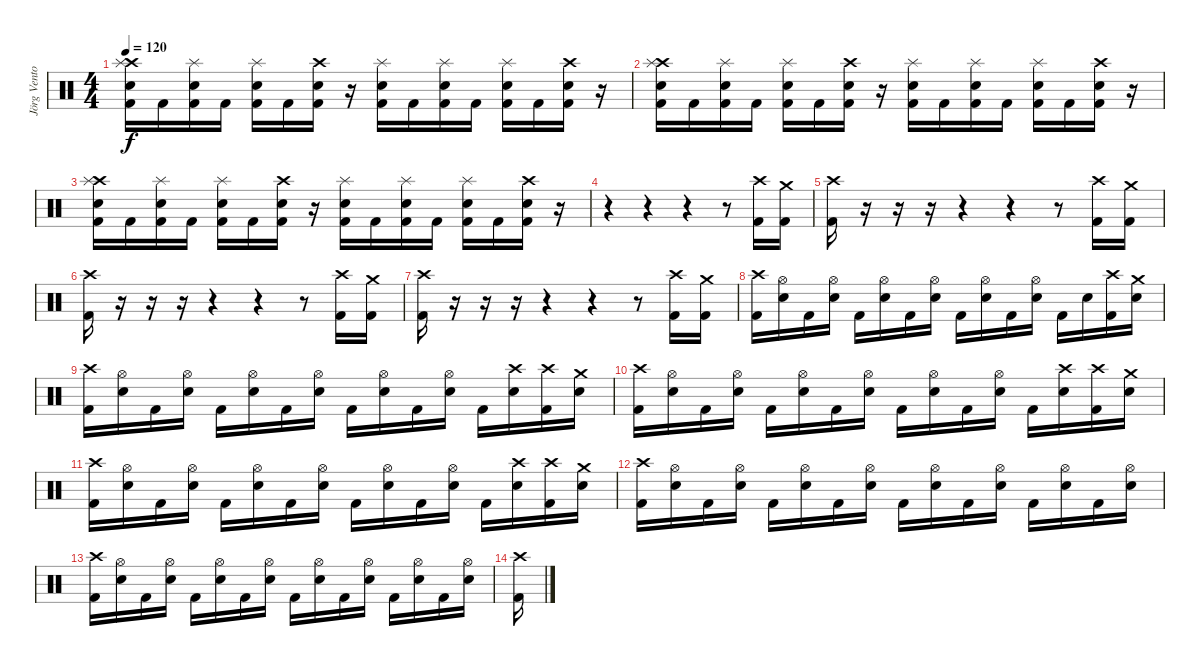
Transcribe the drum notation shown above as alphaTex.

\track ("Jörg Ventor" "Jörg Vento") {instrument percussion}
\staff {score}
\articulation defaults
\ts (4 4)
\tempo 120
\clef neutral
\ks c
("Crash high (hit)" "Kick (hit) 2" "Snare (hit) 2" "Splash (hit)").16{dy f} "Kick (hit) 2".16 ("Kick (hit) 2" "Snare (hit) 2" "Splash (hit)").16 "Kick (hit) 2".16 ("Kick (hit) 2" "Snare (hit) 2" "Splash (hit)").16 "Kick (hit) 2".16 ("Kick (hit) 2" "Snare (hit) 2" "Crash high (hit)").16 r.16 ("Kick (hit) 2" "Snare (hit) 2" "Splash (hit)").16 "Kick (hit) 2".16 ("Kick (hit) 2" "Snare (hit) 2" "Splash (hit)").16 "Kick (hit) 2".16 ("Kick (hit) 2" "Snare (hit) 2" "Splash (hit)").16 "Kick (hit) 2".16 ("Kick (hit) 2" "Snare (hit) 2" "Crash high (hit)").16 r.16 |
("Crash high (hit)" "Kick (hit) 2" "Snare (hit) 2" "Splash (hit)").16 "Kick (hit) 2".16 ("Kick (hit) 2" "Snare (hit) 2" "Splash (hit)").16 "Kick (hit) 2".16 ("Kick (hit) 2" "Snare (hit) 2" "Splash (hit)").16 "Kick (hit) 2".16 ("Kick (hit) 2" "Snare (hit) 2" "Crash high (hit)").16 r.16 ("Kick (hit) 2" "Snare (hit) 2" "Splash (hit)").16 "Kick (hit) 2".16 ("Kick (hit) 2" "Snare (hit) 2" "Splash (hit)").16 "Kick (hit) 2".16 ("Kick (hit) 2" "Snare (hit) 2" "Splash (hit)").16 "Kick (hit) 2".16 ("Kick (hit) 2" "Snare (hit) 2" "Crash high (hit)").16 r.16 |
("Crash high (hit)" "Kick (hit) 2" "Snare (hit) 2" "Splash (hit)").16 "Kick (hit) 2".16 ("Kick (hit) 2" "Snare (hit) 2" "Splash (hit)").16 "Kick (hit) 2".16 ("Kick (hit) 2" "Snare (hit) 2" "Splash (hit)").16 "Kick (hit) 2".16 ("Kick (hit) 2" "Snare (hit) 2" "Crash high (hit)").16 r.16 ("Kick (hit) 2" "Snare (hit) 2" "Splash (hit)").16 "Kick (hit) 2".16 ("Kick (hit) 2" "Snare (hit) 2" "Splash (hit)").16 "Kick (hit) 2".16 ("Kick (hit) 2" "Snare (hit) 2" "Splash (hit)").16 "Kick (hit) 2".16 ("Kick (hit) 2" "Snare (hit) 2" "Crash high (hit)").16 r.16 |
r.4 r.4 r.4 r.8 ("Kick (hit) 2" "Crash high (hit)").16 ("Kick (hit) 2" "Crash medium (hit)").16 |
("Kick (hit) 2" "Crash high (hit)").16 r.16 r.16 r.16 r.4 r.4 r.8 ("Kick (hit) 2" "Crash high (hit)").16 ("Kick (hit) 2" "Crash medium (hit)").16 |
("Kick (hit) 2" "Crash high (hit)").16 r.16 r.16 r.16 r.4 r.4 r.8 ("Kick (hit) 2" "Crash high (hit)").16 ("Kick (hit) 2" "Crash medium (hit)").16 |
("Kick (hit) 2" "Crash high (hit)").16 r.16 r.16 r.16 r.4 r.4 r.8 ("Kick (hit) 2" "Crash high (hit)").16 ("Kick (hit) 2" "Crash medium (hit)").16 |
("Crash high (hit)" "Kick (hit) 2").16 ("Hi-Hat (open)" "Snare (hit) 2").16 "Kick (hit) 2".16 ("Hi-Hat (open)" "Snare (hit) 2").16 "Kick (hit) 2".16 ("Hi-Hat (open)" "Snare (hit) 2").16 "Kick (hit) 2".16 ("Hi-Hat (open)" "Snare (hit) 2").16 "Kick (hit) 2".16 ("Hi-Hat (open)" "Snare (hit) 2").16 "Kick (hit) 2".16 ("Hi-Hat (open)" "Snare (hit) 2").16 "Kick (hit) 2".16 "Snare (hit) 2".16 ("Crash high (hit)" "Kick (hit) 2").16 ("Crash medium (hit)" "Snare (hit) 2").16 |
("Crash high (hit)" "Kick (hit) 2").16 ("Hi-Hat (open)" "Snare (hit) 2").16 "Kick (hit) 2".16 ("Hi-Hat (open)" "Snare (hit) 2").16 "Kick (hit) 2".16 ("Hi-Hat (open)" "Snare (hit) 2").16 "Kick (hit) 2".16 ("Hi-Hat (open)" "Snare (hit) 2").16 "Kick (hit) 2".16 ("Hi-Hat (open)" "Snare (hit) 2").16 "Kick (hit) 2".16 ("Hi-Hat (open)" "Snare (hit) 2").16 "Kick (hit) 2".16 ("Crash high (hit)" "Snare (hit) 2").16 ("Crash high (hit)" "Kick (hit) 2").16 ("Crash medium (hit)" "Snare (hit) 2").16 |
("Crash high (hit)" "Kick (hit) 2").16 ("Hi-Hat (open)" "Snare (hit) 2").16 "Kick (hit) 2".16 ("Hi-Hat (open)" "Snare (hit) 2").16 "Kick (hit) 2".16 ("Hi-Hat (open)" "Snare (hit) 2").16 "Kick (hit) 2".16 ("Hi-Hat (open)" "Snare (hit) 2").16 "Kick (hit) 2".16 ("Hi-Hat (open)" "Snare (hit) 2").16 "Kick (hit) 2".16 ("Hi-Hat (open)" "Snare (hit) 2").16 "Kick (hit) 2".16 ("Crash high (hit)" "Snare (hit) 2").16 ("Crash high (hit)" "Kick (hit) 2").16 ("Crash medium (hit)" "Snare (hit) 2").16 |
("Crash high (hit)" "Kick (hit) 2").16 ("Hi-Hat (open)" "Snare (hit) 2").16 "Kick (hit) 2".16 ("Hi-Hat (open)" "Snare (hit) 2").16 "Kick (hit) 2".16 ("Hi-Hat (open)" "Snare (hit) 2").16 "Kick (hit) 2".16 ("Hi-Hat (open)" "Snare (hit) 2").16 "Kick (hit) 2".16 ("Hi-Hat (open)" "Snare (hit) 2").16 "Kick (hit) 2".16 ("Hi-Hat (open)" "Snare (hit) 2").16 "Kick (hit) 2".16 ("Crash high (hit)" "Snare (hit) 2").16 ("Crash high (hit)" "Kick (hit) 2").16 ("Crash medium (hit)" "Snare (hit) 2").16 |
("Crash high (hit)" "Kick (hit) 2").16 ("Hi-Hat (open)" "Snare (hit) 2").16 "Kick (hit) 2".16 ("Hi-Hat (open)" "Snare (hit) 2").16 "Kick (hit) 2".16 ("Hi-Hat (open)" "Snare (hit) 2").16 "Kick (hit) 2".16 ("Hi-Hat (open)" "Snare (hit) 2").16 "Kick (hit) 2".16 ("Hi-Hat (open)" "Snare (hit) 2").16 "Kick (hit) 2".16 ("Hi-Hat (open)" "Snare (hit) 2").16 "Kick (hit) 2".16 ("Hi-Hat (open)" "Snare (hit) 2").16 "Kick (hit) 2".16 ("Hi-Hat (open)" "Snare (hit) 2").16 |
("Crash high (hit)" "Kick (hit) 2").16 ("Hi-Hat (open)" "Snare (hit) 2").16 "Kick (hit) 2".16 ("Hi-Hat (open)" "Snare (hit) 2").16 "Kick (hit) 2".16 ("Hi-Hat (open)" "Snare (hit) 2").16 "Kick (hit) 2".16 ("Hi-Hat (open)" "Snare (hit) 2").16 "Kick (hit) 2".16 ("Hi-Hat (open)" "Snare (hit) 2").16 "Kick (hit) 2".16 ("Hi-Hat (open)" "Snare (hit) 2").16 "Kick (hit) 2".16 ("Hi-Hat (open)" "Snare (hit) 2").16 "Kick (hit) 2".16 ("Hi-Hat (open)" "Snare (hit) 2").16 |
("Kick (hit) 2" "Crash high (hit)").16
